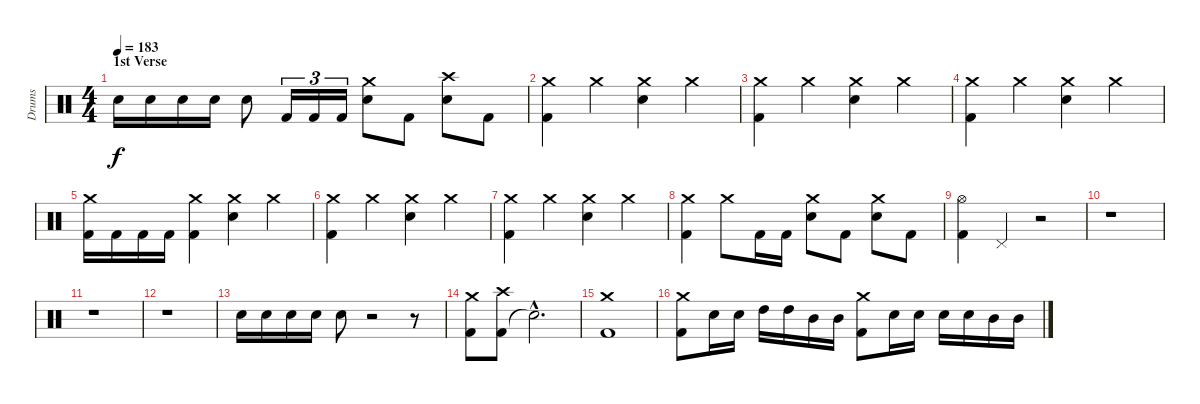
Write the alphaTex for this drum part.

\track ("Drums" "Drums") {instrument percussion}
\staff {score}
\articulation defaults
\ts (4 4)
\section ("" "1st Verse")
\tempo 183
\clef neutral
\ks c "Electric Snare (hit)".16{dy f} "Electric Snare (hit)".16 "Electric Snare (hit)".16 "Electric Snare (hit)".16 "Electric Snare (hit)".8 "Kick (hit) 2".16{tu (3 2)} "Kick (hit) 2".16{tu (3 2)} "Kick (hit) 2".16{tu (3 2)}
("Electric Snare (hit)" "Crash medium (hit)").8 "Kick (hit) 2".8 ("Electric Snare (hit)" "Crash high (hit)").8 "Kick (hit) 2".8 |
("Kick (hit) 2" "Crash medium (hit)").4 "Crash medium (hit)".4 ("Electric Snare (hit)" "Crash medium (hit)").4 "Crash medium (hit)".4 |
("Kick (hit) 2" "Crash medium (hit)").4 "Crash medium (hit)".4 ("Electric Snare (hit)" "Crash medium (hit)").4 "Crash medium (hit)".4 |
("Kick (hit) 2" "Crash medium (hit)").4 "Crash medium (hit)".4 ("Electric Snare (hit)" "Crash medium (hit)").4 "Crash medium (hit)".4 |
("Kick (hit) 2" "Crash medium (hit)").16 "Kick (hit) 2".16 "Kick (hit) 2".16 "Kick (hit) 2".16 ("Kick (hit) 2" "Crash medium (hit)").4 ("Electric Snare (hit)" "Crash medium (hit)").4 "Crash medium (hit)".4 |
("Kick (hit) 2" "Crash medium (hit)").4 "Crash medium (hit)".4 ("Electric Snare (hit)" "Crash medium (hit)").4 "Crash medium (hit)".4 |
("Kick (hit) 2" "Crash medium (hit)").4 "Crash medium (hit)".4 ("Electric Snare (hit)" "Crash medium (hit)").4 "Crash medium (hit)".4 |
("Kick (hit) 2" "Crash medium (hit)").4 "Crash medium (hit)".8 "Kick (hit) 2".16 "Kick (hit) 2".16 ("Electric Snare (hit)" "Crash medium (hit)").8 "Kick (hit) 2".8 ("Electric Snare (hit)" "Crash medium (hit)").8 "Kick (hit) 2".8 |
("Kick (hit) 2" "Hi-Hat (open)").4 "Pedal Hi-Hat (hit)".4 r.2 |
r.1 |
r.1 |
r.1 |
"Electric Snare (hit)".16 "Electric Snare (hit)".16 "Electric Snare (hit)".16 "Electric Snare (hit)".16 "Electric Snare (hit)".8 r.2 r.8 |
("Kick (hit) 2" "Crash medium (hit)").8 ("Kick (hit) 2" "Crash high (hit)").8 "Snare (hit)"{hac t}.2{d} |
("Kick (hit) 2" "Crash medium (hit)").1 |
("Kick (hit) 2" "Crash medium (hit)").8 "Electric Snare (hit)".16 "Electric Snare (hit)".16 "High Tom (hit)".16 "High Tom (hit)".16 "Mid Tom (hit)".16 "Mid Tom (hit)".16 ("Kick (hit) 2" "Crash medium (hit)").8 "Electric Snare (hit)".16 "Electric Snare (hit)".16 "Electric Snare (hit)".16 "Electric Snare (hit)".16 "Mid Tom (hit)".16 "Mid Tom (hit)".16
